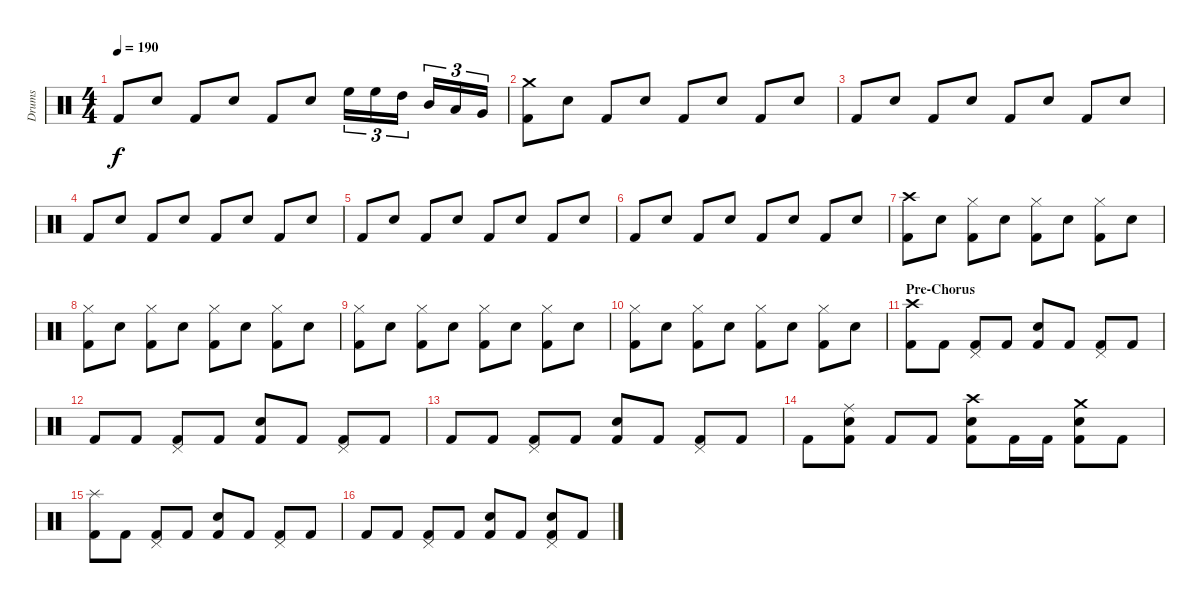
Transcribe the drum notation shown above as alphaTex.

\track ("Drums" "Drums") {instrument percussion}
\staff {score}
\articulation defaults
\ts (4 4)
\tempo 190
\clef neutral
\ks c "Kick (hit) 2".8{dy f} "Snare (hit) 2".8 "Kick (hit) 2".8 "Snare (hit) 2".8 "Kick (hit) 2".8 "Snare (hit) 2".8 "High Floor Tom (hit)".16{tu (3 2)} "High Floor Tom (hit)".16{tu (3 2)} "High Tom (hit)".16{tu (3 2)} "Mid Tom (hit)".16{tu (3 2)} "Low Tom (hit)".16{tu (3 2)} "Very Low Tom (hit)".16{tu (3 2)}
|
("Crash medium (hit)" "Kick (hit) 2").8 "Snare (hit) 2".8 "Kick (hit) 2".8 "Snare (hit) 2".8 "Kick (hit) 2".8 "Snare (hit) 2".8 "Kick (hit) 2".8 "Snare (hit) 2".8 |
"Kick (hit) 2".8 "Snare (hit) 2".8 "Kick (hit) 2".8 "Snare (hit) 2".8 "Kick (hit) 2".8 "Snare (hit) 2".8 "Kick (hit) 2".8 "Snare (hit) 2".8 |
"Kick (hit) 2".8 "Snare (hit) 2".8 "Kick (hit) 2".8 "Snare (hit) 2".8 "Kick (hit) 2".8 "Snare (hit) 2".8 "Kick (hit) 2".8 "Snare (hit) 2".8 |
"Kick (hit) 2".8 "Snare (hit) 2".8 "Kick (hit) 2".8 "Snare (hit) 2".8 "Kick (hit) 2".8 "Snare (hit) 2".8 "Kick (hit) 2".8 "Snare (hit) 2".8 |
"Kick (hit) 2".8 "Snare (hit) 2".8 "Kick (hit) 2".8 "Snare (hit) 2".8 "Kick (hit) 2".8 "Snare (hit) 2".8 "Kick (hit) 2".8 "Snare (hit) 2".8 |
("Crash high (hit)" "Kick (hit) 2").8 "Snare (hit) 2".8 ("Hi-Hat (closed)" "Kick (hit) 2").8 "Snare (hit) 2".8 ("Hi-Hat (closed)" "Kick (hit) 2").8 "Snare (hit) 2".8 ("Hi-Hat (closed)" "Kick (hit) 2").8 "Snare (hit) 2".8 |
("Hi-Hat (closed)" "Kick (hit) 2").8 "Snare (hit) 2".8 ("Hi-Hat (closed)" "Kick (hit) 2").8 "Snare (hit) 2".8 ("Hi-Hat (closed)" "Kick (hit) 2").8 "Snare (hit) 2".8 ("Hi-Hat (closed)" "Kick (hit) 2").8 "Snare (hit) 2".8 |
("Hi-Hat (closed)" "Kick (hit) 2").8 "Snare (hit) 2".8 ("Hi-Hat (closed)" "Kick (hit) 2").8 "Snare (hit) 2".8 ("Hi-Hat (closed)" "Kick (hit) 2").8 "Snare (hit) 2".8 ("Hi-Hat (closed)" "Kick (hit) 2").8 "Snare (hit) 2".8 |
("Hi-Hat (closed)" "Kick (hit) 2").8 "Snare (hit) 2".8 ("Hi-Hat (closed)" "Kick (hit) 2").8 "Snare (hit) 2".8 ("Hi-Hat (closed)" "Kick (hit) 2").8 "Snare (hit) 2".8 ("Hi-Hat (closed)" "Kick (hit) 2").8 "Snare (hit) 2".8 |
\section ("" "Pre-Chorus")
("Crash high (hit)" "Kick (hit) 2").8 "Kick (hit) 2".8 ("Pedal Hi-Hat (hit)" "Kick (hit) 2").8 "Kick (hit) 2".8 ("Snare (hit) 2" "Kick (hit) 2").8 "Kick (hit) 2".8 ("Pedal Hi-Hat (hit)" "Kick (hit) 2").8 "Kick (hit) 2".8 |
"Kick (hit) 2".8 "Kick (hit) 2".8 ("Pedal Hi-Hat (hit)" "Kick (hit) 2").8 "Kick (hit) 2".8 ("Snare (hit) 2" "Kick (hit) 2").8 "Kick (hit) 2".8 ("Pedal Hi-Hat (hit)" "Kick (hit) 2").8 "Kick (hit) 2".8 |
"Kick (hit) 2".8 "Kick (hit) 2".8 ("Pedal Hi-Hat (hit)" "Kick (hit) 2").8 "Kick (hit) 2".8 ("Snare (hit) 2" "Kick (hit) 2").8 "Kick (hit) 2".8 ("Pedal Hi-Hat (hit)" "Kick (hit) 2").8 "Kick (hit) 2".8 |
"Kick (hit) 2".8 ("Ride (middle)" "Snare (hit) 2" "Kick (hit) 2").8 "Kick (hit) 2".8 "Kick (hit) 2".8 ("Crash high (hit)" "Snare (hit) 2" "Kick (hit) 2").8 "Kick (hit) 2".16 "Kick (hit) 2".16 ("Crash medium (hit)" "Snare (hit) 2" "Kick (hit) 2").8 "Kick (hit) 2".8 |
("Splash (hit)" "Kick (hit) 2").8 "Kick (hit) 2".8 ("Pedal Hi-Hat (hit)" "Kick (hit) 2").8 "Kick (hit) 2".8 ("Snare (hit) 2" "Kick (hit) 2").8 "Kick (hit) 2".8 ("Pedal Hi-Hat (hit)" "Kick (hit) 2").8 "Kick (hit) 2".8 |
"Kick (hit) 2".8 "Kick (hit) 2".8 ("Pedal Hi-Hat (hit)" "Kick (hit) 2").8 "Kick (hit) 2".8 ("Snare (hit) 2" "Kick (hit) 2").8 "Kick (hit) 2".8 ("Pedal Hi-Hat (hit)" "Snare (hit) 2" "Kick (hit) 2").8 "Kick (hit) 2".8
